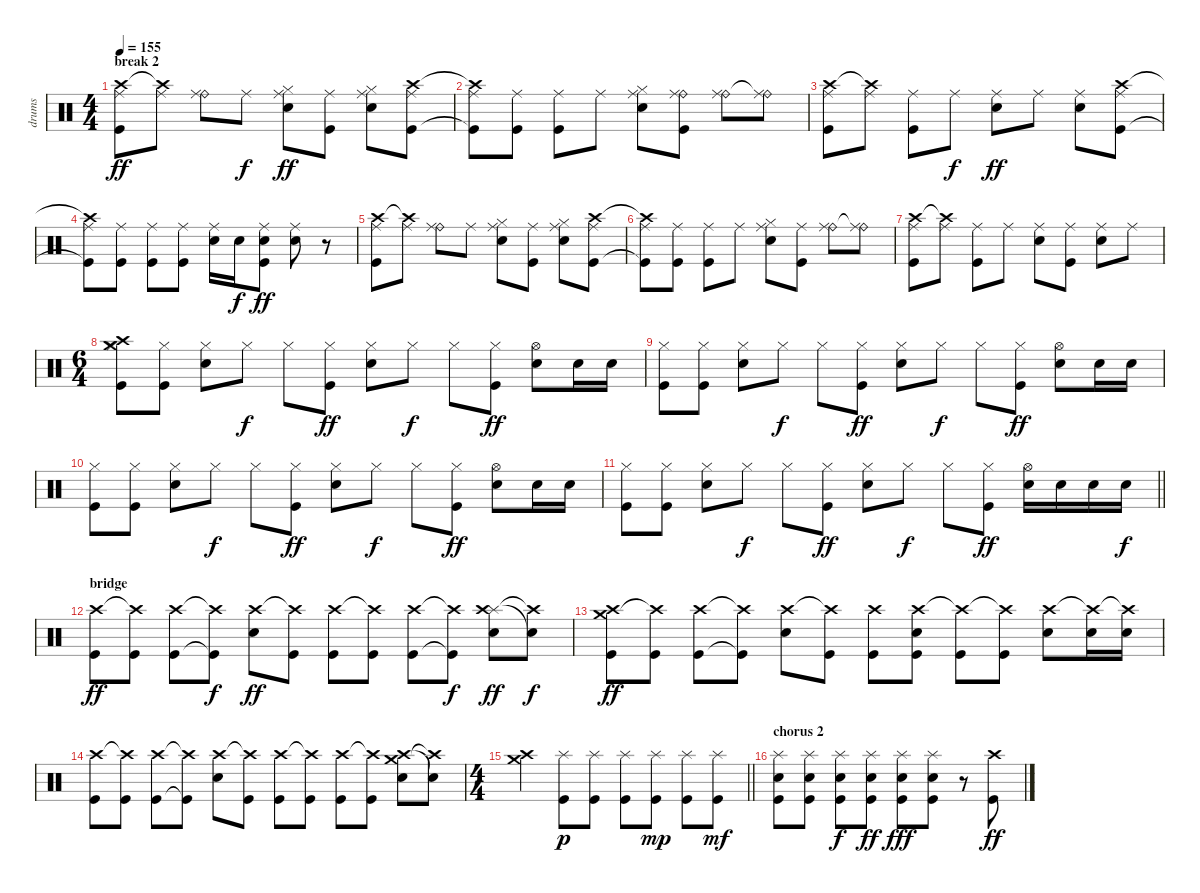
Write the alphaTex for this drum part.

\track ("drums" "drums") {instrument percussion}
\staff {score}
\articulation defaults
\ts (4 4)
\section ("" "break 2")
\tempo 155
\clef neutral
\ks c
("Crash high (hit)" "Ride (middle)" "Kick (hit)").8{dy ff} ("Crash high (hit)"{t} "Ride (middle)").8 ("Ride (bell)" "Ride (middle)").8 "Ride (middle)".8{dy f} ("Hi-Hat (closed)" "Ride (middle)" "Electric Snare (hit)").8{dy ff} ("Ride (middle)" "Kick (hit)").8 ("Hi-Hat (closed)" "Ride (middle)" "Electric Snare (hit)").8 ("Crash high (hit)" "Ride (middle)" "Kick (hit)").8 |
("Crash high (hit)"{t} "Ride (middle)" "Kick (hit)"{t}).8 ("Ride (middle)" "Kick (hit)").8 ("Ride (middle)" "Kick (hit)").8 "Ride (middle)".8 ("Hi-Hat (closed)" "Ride (middle)" "Electric Snare (hit)").8 ("Ride (bell)" "Ride (middle)" "Kick (hit)").8 ("Ride (bell)" "Ride (middle)").8 ("Ride (bell)"{t} "Ride (middle)").8 |
("Crash high (hit)" "Ride (middle)" "Kick (hit)").8 ("Crash high (hit)"{t} "Ride (middle)").8 ("Ride (middle)" "Kick (hit)").8 "Ride (middle)".8{dy f} ("Ride (middle)" "Electric Snare (hit)").8{dy ff} "Ride (middle)".8 ("Ride (middle)" "Electric Snare (hit)").8 ("Crash high (hit)" "Ride (middle)" "Kick (hit)").8 |
("Crash high (hit)"{t} "Ride (middle)" "Kick (hit)"{t}).8 ("Ride (middle)" "Kick (hit)").8 ("Ride (middle)" "Kick (hit)").8 ("Ride (middle)" "Kick (hit)").8 ("Ride (middle)" "Electric Snare (hit)").16 "Electric Snare (hit)".16{dy f} ("Ride (middle)" "Electric Snare (hit)" "Kick (hit)").8{dy ff} ("Ride (middle)" "Electric Snare (hit)").8 r.8 |
("Crash high (hit)" "Ride (middle)" "Kick (hit)").8 ("Crash high (hit)"{t} "Ride (middle)").8 ("Ride (bell)" "Ride (middle)").8 "Ride (middle)".8 ("Hi-Hat (closed)" "Ride (middle)" "Electric Snare (hit)").8 ("Ride (middle)" "Kick (hit)").8 ("Hi-Hat (closed)" "Ride (middle)" "Electric Snare (hit)").8 ("Crash high (hit)" "Ride (middle)" "Kick (hit)").8 |
("Crash high (hit)"{t} "Ride (middle)" "Kick (hit)"{t}).8 ("Ride (middle)" "Kick (hit)").8 ("Ride (middle)" "Kick (hit)").8 "Ride (middle)".8 ("Hi-Hat (closed)" "Ride (middle)" "Electric Snare (hit)").8 ("Ride (middle)" "Kick (hit)").8 ("Ride (bell)" "Ride (middle)").8 ("Ride (bell)"{t} "Ride (middle)").8 |
("Crash high (hit)" "Ride (middle)" "Kick (hit)").8 ("Crash high (hit)"{t} "Ride (middle)").8 ("Ride (middle)" "Kick (hit)").8 "Ride (middle)".8 ("Ride (middle)" "Electric Snare (hit)").8 ("Ride (middle)" "Kick (hit)").8 ("Ride (middle)" "Electric Snare (hit)").8 "Ride (middle)".8 |
\ts (6 4)
("Crash high (hit)" "Hi-Hat (closed)" "Crash medium (hit)" "Kick (hit)").8 ("Hi-Hat (closed)" "Kick (hit)").8 ("Hi-Hat (closed)" "Electric Snare (hit)").8 "Hi-Hat (closed)".8{dy f} "Hi-Hat (closed)".8 ("Hi-Hat (closed)" "Kick (hit)").8{dy ff} ("Hi-Hat (closed)" "Electric Snare (hit)").8 "Hi-Hat (closed)".8{dy f} "Hi-Hat (closed)".8 ("Hi-Hat (closed)" "Kick (hit)").8{dy ff} ("Hi-Hat (open)" "Electric Snare (hit)").8 "Electric Snare (hit)".16 "Electric Snare (hit)".16 |
("Hi-Hat (closed)" "Kick (hit)").8 ("Hi-Hat (closed)" "Kick (hit)").8 ("Hi-Hat (closed)" "Electric Snare (hit)").8 "Hi-Hat (closed)".8{dy f} "Hi-Hat (closed)".8 ("Hi-Hat (closed)" "Kick (hit)").8{dy ff} ("Hi-Hat (closed)" "Electric Snare (hit)").8 "Hi-Hat (closed)".8{dy f} "Hi-Hat (closed)".8 ("Hi-Hat (closed)" "Kick (hit)").8{dy ff} ("Hi-Hat (open)" "Electric Snare (hit)").8 "Electric Snare (hit)".16 "Electric Snare (hit)".16 |
("Hi-Hat (closed)" "Kick (hit)").8 ("Hi-Hat (closed)" "Kick (hit)").8 ("Hi-Hat (closed)" "Electric Snare (hit)").8 "Hi-Hat (closed)".8{dy f} "Hi-Hat (closed)".8 ("Hi-Hat (closed)" "Kick (hit)").8{dy ff} ("Hi-Hat (closed)" "Electric Snare (hit)").8 "Hi-Hat (closed)".8{dy f} "Hi-Hat (closed)".8 ("Hi-Hat (closed)" "Kick (hit)").8{dy ff} ("Hi-Hat (open)" "Electric Snare (hit)").8 "Electric Snare (hit)".16 "Electric Snare (hit)".16 |
\barLineRight lightlight
("Hi-Hat (closed)" "Kick (hit)").8 ("Hi-Hat (closed)" "Kick (hit)").8 ("Hi-Hat (closed)" "Electric Snare (hit)").8 "Hi-Hat (closed)".8{dy f} "Hi-Hat (closed)".8 ("Hi-Hat (closed)" "Kick (hit)").8{dy ff} ("Hi-Hat (closed)" "Electric Snare (hit)").8 "Hi-Hat (closed)".8{dy f} "Hi-Hat (closed)".8 ("Hi-Hat (closed)" "Kick (hit)").8{dy ff} ("Hi-Hat (open)" "Electric Snare (hit)").16 "Electric Snare (hit)".16 "Electric Snare (hit)".16 "Electric Snare (hit)".16{dy f} |
\section ("" "bridge")
("Crash high (hit)" "Kick (hit)").8{dy ff} ("Crash high (hit)"{t} "Kick (hit)").8 ("Crash high (hit)" "Kick (hit)").8 ("Crash high (hit)"{t} "Kick (hit)"{t}).8{dy f} ("Crash high (hit)" "Electric Snare (hit)").8{dy ff} ("Crash high (hit)"{t} "Kick (hit)").8 ("Crash high (hit)" "Kick (hit)").8 ("Crash high (hit)"{t} "Kick (hit)").8 ("Crash high (hit)" "Kick (hit)").8 ("Crash high (hit)"{t} "Kick (hit)"{t}).8{dy f} ("Splash (hit)" "Crash high (hit)" "Electric Snare (hit)").8{dy ff} ("Crash high (hit)"{t} "Electric Snare (hit)"{t}).8{dy f} |
("Crash medium (hit)" "Crash high (hit)" "Kick (hit)").8{dy ff} ("Crash high (hit)"{t} "Kick (hit)").8 ("Crash high (hit)" "Kick (hit)").8 ("Crash high (hit)"{t} "Kick (hit)"{t}).8 ("Crash high (hit)" "Electric Snare (hit)").8 ("Crash high (hit)"{t} "Kick (hit)").8 ("Crash high (hit)" "Kick (hit)").8 ("Crash high (hit)" "Electric Snare (hit)" "Kick (hit)").8 ("Crash high (hit)"{t} "Kick (hit)").8 ("Crash high (hit)"{t} "Kick (hit)").8 ("Crash high (hit)" "Electric Snare (hit)").8 ("Crash high (hit)"{t} "Electric Snare (hit)").16 ("Crash high (hit)"{t} "Electric Snare (hit)").16 |
("Crash high (hit)" "Kick (hit)").8 ("Crash high (hit)"{t} "Kick (hit)").8 ("Crash high (hit)" "Kick (hit)").8 ("Crash high (hit)"{t} "Kick (hit)"{t}).8 ("Crash high (hit)" "Electric Snare (hit)").8 ("Crash high (hit)"{t} "Kick (hit)").8 ("Crash high (hit)" "Kick (hit)").8 ("Crash high (hit)"{t} "Kick (hit)").8 ("Crash high (hit)" "Kick (hit)").8 ("Crash high (hit)"{t} "Kick (hit)").8 ("Crash medium (hit)" "Crash high (hit)" "Electric Snare (hit)").8 ("Crash high (hit)"{t} "Electric Snare (hit)"{t}).8 |
\ts (4 4)
\barLineRight lightlight
("Crash high (hit)" "Crash medium (hit)").4 ("Splash (hit)" "Kick (hit)").8{dy p} ("Splash (hit)" "Kick (hit)").8 ("Splash (hit)" "Kick (hit)").8 ("Splash (hit)" "Kick (hit)").8{dy mp} ("Splash (hit)" "Kick (hit)").8 ("Splash (hit)" "Kick (hit)").8{dy mf} |
\section ("" "chorus 2")
("Splash (hit)" "Electric Snare (hit)" "Kick (hit)").8 ("Splash (hit)" "Electric Snare (hit)" "Kick (hit)").8 ("Splash (hit)" "Electric Snare (hit)" "Kick (hit)").8{dy f} ("Splash (hit)" "Electric Snare (hit)" "Kick (hit)").8{dy ff} ("Splash (hit)" "Electric Snare (hit)" "Kick (hit)").8{dy fff} ("Splash (hit)" "Electric Snare (hit)" "Kick (hit)").8 r.8 ("Crash high (hit)" "Kick (hit)").8{dy ff}
